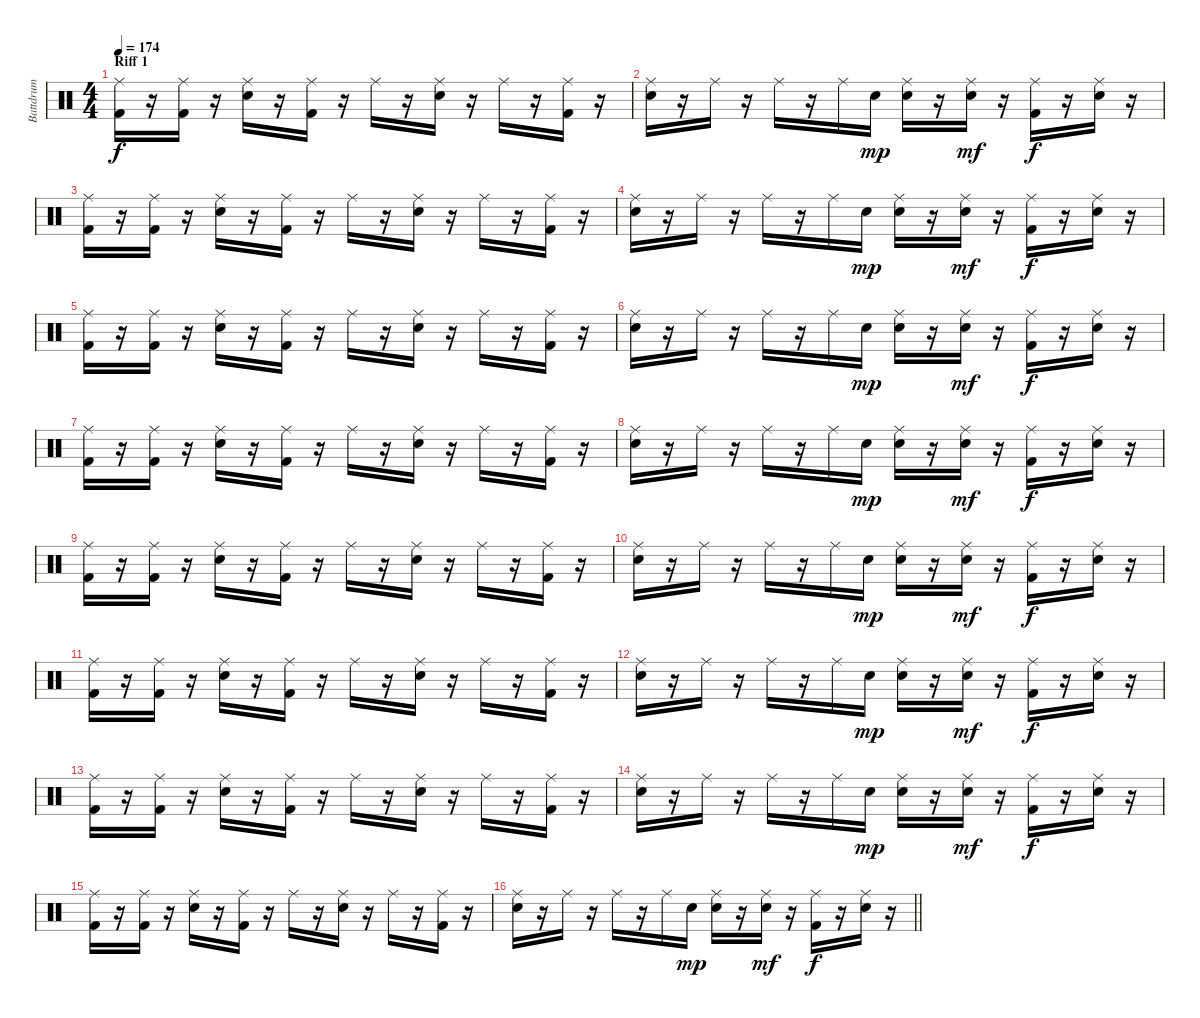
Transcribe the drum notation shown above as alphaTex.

\track ("Battdrum" "Battdrum") {instrument percussion}
\staff {score}
\articulation defaults
\ts (4 4)
\section ("" "Riff 1")
\tempo 174
\clef neutral
\ks c
("Kick (hit) 2" "Ride (middle)").16{dy f} r.16 ("Kick (hit) 2" "Ride (middle)").16 r.16 ("Snare (hit) 2" "Ride (middle)").16 r.16 ("Kick (hit) 2" "Ride (middle)").16 r.16 "Ride (middle)".16 r.16 ("Snare (hit) 2" "Ride (middle)").16 r.16 "Ride (middle)".16 r.16 ("Kick (hit) 2" "Ride (middle)").16 r.16 |
("Snare (hit) 2" "Ride (middle)").16 r.16 "Ride (middle)".16 r.16 "Ride (middle)".16 r.16 "Ride (middle)".16 "Snare (hit) 2".16{dy mp} ("Snare (hit) 2" "Ride (middle)").16 r.16 ("Snare (hit) 2" "Ride (middle)").16{dy mf} r.16 ("Kick (hit) 2" "Ride (middle)").16{dy f} r.16 ("Snare (hit) 2" "Ride (middle)").16 r.16 |
("Kick (hit) 2" "Ride (middle)").16 r.16 ("Kick (hit) 2" "Ride (middle)").16 r.16 ("Snare (hit) 2" "Ride (middle)").16 r.16 ("Kick (hit) 2" "Ride (middle)").16 r.16 "Ride (middle)".16 r.16 ("Snare (hit) 2" "Ride (middle)").16 r.16 "Ride (middle)".16 r.16 ("Kick (hit) 2" "Ride (middle)").16 r.16 |
("Snare (hit) 2" "Ride (middle)").16 r.16 "Ride (middle)".16 r.16 "Ride (middle)".16 r.16 "Ride (middle)".16 "Snare (hit) 2".16{dy mp} ("Snare (hit) 2" "Ride (middle)").16 r.16 ("Snare (hit) 2" "Ride (middle)").16{dy mf} r.16 ("Kick (hit) 2" "Ride (middle)").16{dy f} r.16 ("Snare (hit) 2" "Ride (middle)").16 r.16 |
("Kick (hit) 2" "Ride (middle)").16 r.16 ("Kick (hit) 2" "Ride (middle)").16 r.16 ("Snare (hit) 2" "Ride (middle)").16 r.16 ("Kick (hit) 2" "Ride (middle)").16 r.16 "Ride (middle)".16 r.16 ("Snare (hit) 2" "Ride (middle)").16 r.16 "Ride (middle)".16 r.16 ("Kick (hit) 2" "Ride (middle)").16 r.16 |
("Snare (hit) 2" "Ride (middle)").16 r.16 "Ride (middle)".16 r.16 "Ride (middle)".16 r.16 "Ride (middle)".16 "Snare (hit) 2".16{dy mp} ("Snare (hit) 2" "Ride (middle)").16 r.16 ("Snare (hit) 2" "Ride (middle)").16{dy mf} r.16 ("Kick (hit) 2" "Ride (middle)").16{dy f} r.16 ("Snare (hit) 2" "Ride (middle)").16 r.16 |
("Kick (hit) 2" "Ride (middle)").16 r.16 ("Kick (hit) 2" "Ride (middle)").16 r.16 ("Snare (hit) 2" "Ride (middle)").16 r.16 ("Kick (hit) 2" "Ride (middle)").16 r.16 "Ride (middle)".16 r.16 ("Snare (hit) 2" "Ride (middle)").16 r.16 "Ride (middle)".16 r.16 ("Kick (hit) 2" "Ride (middle)").16 r.16 |
("Snare (hit) 2" "Ride (middle)").16 r.16 "Ride (middle)".16 r.16 "Ride (middle)".16 r.16 "Ride (middle)".16 "Snare (hit) 2".16{dy mp} ("Snare (hit) 2" "Ride (middle)").16 r.16 ("Snare (hit) 2" "Ride (middle)").16{dy mf} r.16 ("Kick (hit) 2" "Ride (middle)").16{dy f} r.16 ("Snare (hit) 2" "Ride (middle)").16 r.16 |
("Kick (hit) 2" "Ride (middle)").16 r.16 ("Kick (hit) 2" "Ride (middle)").16 r.16 ("Snare (hit) 2" "Ride (middle)").16 r.16 ("Kick (hit) 2" "Ride (middle)").16 r.16 "Ride (middle)".16 r.16 ("Snare (hit) 2" "Ride (middle)").16 r.16 "Ride (middle)".16 r.16 ("Kick (hit) 2" "Ride (middle)").16 r.16 |
("Snare (hit) 2" "Ride (middle)").16 r.16 "Ride (middle)".16 r.16 "Ride (middle)".16 r.16 "Ride (middle)".16 "Snare (hit) 2".16{dy mp} ("Snare (hit) 2" "Ride (middle)").16 r.16 ("Snare (hit) 2" "Ride (middle)").16{dy mf} r.16 ("Kick (hit) 2" "Ride (middle)").16{dy f} r.16 ("Snare (hit) 2" "Ride (middle)").16 r.16 |
("Kick (hit) 2" "Ride (middle)").16 r.16 ("Kick (hit) 2" "Ride (middle)").16 r.16 ("Snare (hit) 2" "Ride (middle)").16 r.16 ("Kick (hit) 2" "Ride (middle)").16 r.16 "Ride (middle)".16 r.16 ("Snare (hit) 2" "Ride (middle)").16 r.16 "Ride (middle)".16 r.16 ("Kick (hit) 2" "Ride (middle)").16 r.16 |
("Snare (hit) 2" "Ride (middle)").16 r.16 "Ride (middle)".16 r.16 "Ride (middle)".16 r.16 "Ride (middle)".16 "Snare (hit) 2".16{dy mp} ("Snare (hit) 2" "Ride (middle)").16 r.16 ("Snare (hit) 2" "Ride (middle)").16{dy mf} r.16 ("Kick (hit) 2" "Ride (middle)").16{dy f} r.16 ("Snare (hit) 2" "Ride (middle)").16 r.16 |
("Kick (hit) 2" "Ride (middle)").16 r.16 ("Kick (hit) 2" "Ride (middle)").16 r.16 ("Snare (hit) 2" "Ride (middle)").16 r.16 ("Kick (hit) 2" "Ride (middle)").16 r.16 "Ride (middle)".16 r.16 ("Snare (hit) 2" "Ride (middle)").16 r.16 "Ride (middle)".16 r.16 ("Kick (hit) 2" "Ride (middle)").16 r.16 |
("Snare (hit) 2" "Ride (middle)").16 r.16 "Ride (middle)".16 r.16 "Ride (middle)".16 r.16 "Ride (middle)".16 "Snare (hit) 2".16{dy mp} ("Snare (hit) 2" "Ride (middle)").16 r.16 ("Snare (hit) 2" "Ride (middle)").16{dy mf} r.16 ("Kick (hit) 2" "Ride (middle)").16{dy f} r.16 ("Snare (hit) 2" "Ride (middle)").16 r.16 |
("Kick (hit) 2" "Ride (middle)").16 r.16 ("Kick (hit) 2" "Ride (middle)").16 r.16 ("Snare (hit) 2" "Ride (middle)").16 r.16 ("Kick (hit) 2" "Ride (middle)").16 r.16 "Ride (middle)".16 r.16 ("Snare (hit) 2" "Ride (middle)").16 r.16 "Ride (middle)".16 r.16 ("Kick (hit) 2" "Ride (middle)").16 r.16 |
\barLineRight lightlight
("Snare (hit) 2" "Ride (middle)").16 r.16 "Ride (middle)".16 r.16 "Ride (middle)".16 r.16 "Ride (middle)".16 "Snare (hit) 2".16{dy mp} ("Snare (hit) 2" "Ride (middle)").16 r.16 ("Snare (hit) 2" "Ride (middle)").16{dy mf} r.16 ("Kick (hit) 2" "Ride (middle)").16{dy f} r.16 ("Snare (hit) 2" "Ride (middle)").16 r.16
